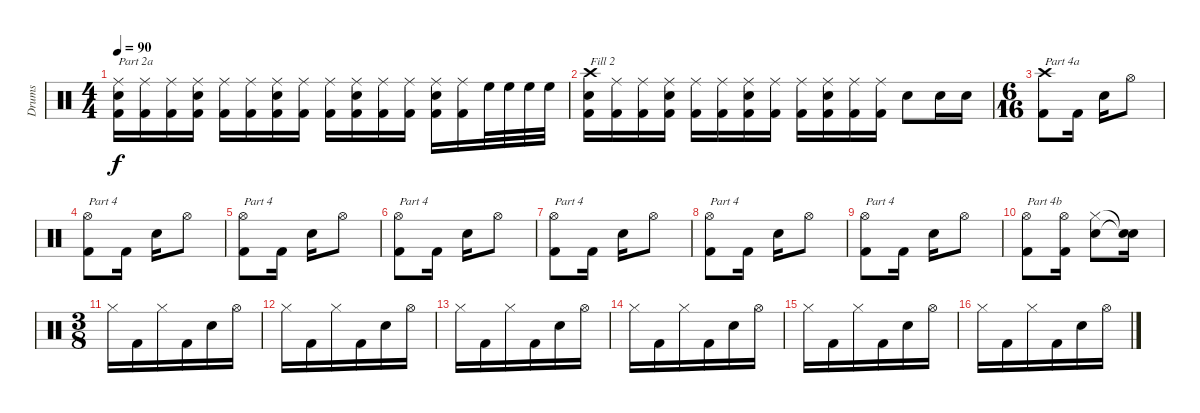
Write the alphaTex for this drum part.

\track ("Drums" "Drums") {instrument percussion}
\staff {score}
\articulation defaults
\ts (4 4)
\tempo 90
\clef neutral
\ks c
("Ride (middle)" "Snare (hit) 2" "Kick (hit) 2").16{txt "Part 2a" dy f} ("Ride (middle)" "Kick (hit) 2").16 ("Ride (middle)" "Kick (hit) 2").16 ("Ride (middle)" "Snare (hit) 2" "Kick (hit) 2").16 ("Ride (middle)" "Kick (hit) 2").16 ("Ride (middle)" "Kick (hit) 2").16 ("Ride (middle)" "Snare (hit) 2" "Kick (hit) 2").16 ("Ride (middle)" "Kick (hit) 2").16 ("Ride (middle)" "Kick (hit) 2").16 ("Ride (middle)" "Snare (hit) 2" "Kick (hit) 2").16 ("Ride (middle)" "Kick (hit) 2").16 ("Ride (middle)" "Kick (hit) 2").16 ("Ride (middle)" "Snare (hit) 2" "Kick (hit) 2").16 ("Ride (middle)" "Kick (hit) 2").16 "High Floor Tom (hit)".32 "High Floor Tom (hit)".32 "High Floor Tom (hit)".32 "High Floor Tom (hit)".32 |
("Crash high (hit)" "Snare (hit) 2" "Kick (hit) 2").16{txt "Fill 2"} ("Ride (middle)" "Kick (hit) 2").16 ("Ride (middle)" "Kick (hit) 2").16 ("Ride (middle)" "Snare (hit) 2" "Kick (hit) 2").16 ("Ride (middle)" "Kick (hit) 2").16 ("Ride (middle)" "Kick (hit) 2").16 ("Ride (middle)" "Snare (hit) 2" "Kick (hit) 2").16 ("Ride (middle)" "Kick (hit) 2").16 ("Ride (middle)" "Kick (hit) 2").16 ("Ride (middle)" "Snare (hit) 2" "Kick (hit) 2").16 ("Ride (middle)" "Kick (hit) 2").16 ("Ride (middle)" "Kick (hit) 2").16 "Snare (hit) 2".8 "Snare (hit) 2".16 "Snare (hit) 2".16 |
\ts (6 16)
("Crash high (hit)" "Kick (hit) 2").8{txt "Part 4a"} "Kick (hit) 2".16 "Snare (hit) 2".16 "Hi-Hat (open)".8 |
("Hi-Hat (open)" "Kick (hit) 2").8{txt "Part 4"} "Kick (hit) 2".16 "Snare (hit) 2".16 "Hi-Hat (open)".8 |
("Hi-Hat (open)" "Kick (hit) 2").8{txt "Part 4"} "Kick (hit) 2".16 "Snare (hit) 2".16 "Hi-Hat (open)".8 |
("Hi-Hat (open)" "Kick (hit) 2").8{txt "Part 4"} "Kick (hit) 2".16 "Snare (hit) 2".16 "Hi-Hat (open)".8 |
("Hi-Hat (open)" "Kick (hit) 2").8{txt "Part 4"} "Kick (hit) 2".16 "Snare (hit) 2".16 "Hi-Hat (open)".8 |
("Hi-Hat (open)" "Kick (hit) 2").8{txt "Part 4"} "Kick (hit) 2".16 "Snare (hit) 2".16 "Hi-Hat (open)".8 |
("Hi-Hat (open)" "Kick (hit) 2").8{txt "Part 4"} "Kick (hit) 2".16 "Snare (hit) 2".16 "Hi-Hat (open)".8 |
("Hi-Hat (open)" "Kick (hit) 2").8{txt "Part 4b"} ("Hi-Hat (open)" "Kick (hit) 2").16 ("Hi-Hat (closed)" "Snare (hit) 2").8 ("Snare (hit)"{t} "Snare (hit)"{t}).16 |
\ts (3 8)
"Hi-Hat (closed)".16 "Kick (hit) 2".16 "Hi-Hat (closed)".16 "Kick (hit) 2".16 "Snare (hit) 2".16 "Hi-Hat (open)".16 |
"Hi-Hat (closed)".16 "Kick (hit) 2".16 "Hi-Hat (closed)".16 "Kick (hit) 2".16 "Snare (hit) 2".16 "Hi-Hat (open)".16 |
"Hi-Hat (closed)".16 "Kick (hit) 2".16 "Hi-Hat (closed)".16 "Kick (hit) 2".16 "Snare (hit) 2".16 "Hi-Hat (open)".16 |
"Hi-Hat (closed)".16 "Kick (hit) 2".16 "Hi-Hat (closed)".16 "Kick (hit) 2".16 "Snare (hit) 2".16 "Hi-Hat (open)".16 |
"Hi-Hat (closed)".16 "Kick (hit) 2".16 "Hi-Hat (closed)".16 "Kick (hit) 2".16 "Snare (hit) 2".16 "Hi-Hat (open)".16 |
"Hi-Hat (closed)".16 "Kick (hit) 2".16 "Hi-Hat (closed)".16 "Kick (hit) 2".16 "Snare (hit) 2".16 "Hi-Hat (open)".16
